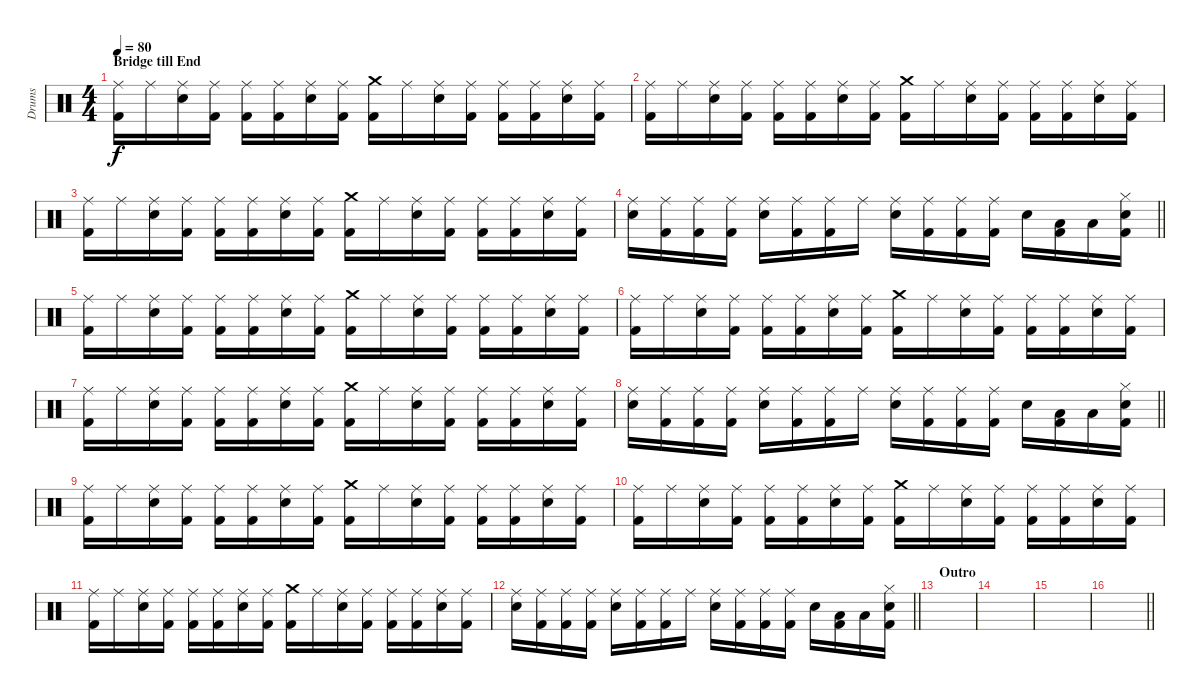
\track ("Drums" "Drums") {instrument percussion}
\staff {score}
\articulation defaults
\ts (4 4)
\section ("" "Bridge till End")
\tempo 80
\clef neutral
\ks c
("Ride (middle)" "Kick (hit) 2").16{dy f} "Ride (middle)".16 ("Ride (middle)" "Snare (hit) 2").16 ("Ride (middle)" "Kick (hit) 2").16 ("Ride (middle)" "Kick (hit) 2").16 ("Ride (middle)" "Kick (hit) 2").16 ("Ride (middle)" "Snare (hit) 2").16 ("Ride (middle)" "Kick (hit) 2").16 ("Crash medium (hit)" "Kick (hit) 2").16 "Ride (middle)".16 ("Ride (middle)" "Snare (hit) 2").16 ("Ride (middle)" "Kick (hit) 2").16 ("Ride (middle)" "Kick (hit) 2").16 ("Ride (middle)" "Kick (hit) 2").16 ("Ride (middle)" "Snare (hit) 2").16 ("Ride (middle)" "Kick (hit) 2").16 |
("Ride (middle)" "Kick (hit) 2").16 "Ride (middle)".16 ("Ride (middle)" "Snare (hit) 2").16 ("Ride (middle)" "Kick (hit) 2").16 ("Ride (middle)" "Kick (hit) 2").16 ("Ride (middle)" "Kick (hit) 2").16 ("Ride (middle)" "Snare (hit) 2").16 ("Ride (middle)" "Kick (hit) 2").16 ("Crash medium (hit)" "Kick (hit) 2").16 "Ride (middle)".16 ("Ride (middle)" "Snare (hit) 2").16 ("Ride (middle)" "Kick (hit) 2").16 ("Ride (middle)" "Kick (hit) 2").16 ("Ride (middle)" "Kick (hit) 2").16 ("Ride (middle)" "Snare (hit) 2").16 ("Ride (middle)" "Kick (hit) 2").16 |
("Ride (middle)" "Kick (hit) 2").16 "Ride (middle)".16 ("Ride (middle)" "Snare (hit) 2").16 ("Ride (middle)" "Kick (hit) 2").16 ("Ride (middle)" "Kick (hit) 2").16 ("Ride (middle)" "Kick (hit) 2").16 ("Ride (middle)" "Snare (hit) 2").16 ("Ride (middle)" "Kick (hit) 2").16 ("Crash medium (hit)" "Kick (hit) 2").16 "Ride (middle)".16 ("Ride (middle)" "Snare (hit) 2").16 ("Ride (middle)" "Kick (hit) 2").16 ("Ride (middle)" "Kick (hit) 2").16 ("Ride (middle)" "Kick (hit) 2").16 ("Ride (middle)" "Snare (hit) 2").16 ("Ride (middle)" "Kick (hit) 2").16 |
\barLineRight lightlight
("Ride (middle)" "Snare (hit) 2").16 ("Ride (middle)" "Kick (hit) 2").16 ("Ride (middle)" "Kick (hit) 2").16 ("Ride (middle)" "Kick (hit) 2").16 ("Ride (middle)" "Snare (hit) 2").16 ("Ride (middle)" "Kick (hit) 2").16 ("Ride (middle)" "Kick (hit) 2").16 "Ride (middle)".16 ("Ride (middle)" "Snare (hit) 2").16 ("Ride (middle)" "Kick (hit) 2").16 ("Ride (middle)" "Kick (hit) 2").16 ("Ride (middle)" "Kick (hit) 2").16 "Snare (hit) 2".16 ("Low Tom (hit)" "Kick (hit) 2").16 "Low Tom (hit)".16 ("Hi-Hat (closed)" "Snare (hit) 2" "Kick (hit) 2").16 |
("Ride (middle)" "Kick (hit) 2").16 "Ride (middle)".16 ("Ride (middle)" "Snare (hit) 2").16 ("Ride (middle)" "Kick (hit) 2").16 ("Ride (middle)" "Kick (hit) 2").16 ("Ride (middle)" "Kick (hit) 2").16 ("Ride (middle)" "Snare (hit) 2").16 ("Ride (middle)" "Kick (hit) 2").16 ("Crash medium (hit)" "Kick (hit) 2").16 "Ride (middle)".16 ("Ride (middle)" "Snare (hit) 2").16 ("Ride (middle)" "Kick (hit) 2").16 ("Ride (middle)" "Kick (hit) 2").16 ("Ride (middle)" "Kick (hit) 2").16 ("Ride (middle)" "Snare (hit) 2").16 ("Ride (middle)" "Kick (hit) 2").16 |
("Ride (middle)" "Kick (hit) 2").16 "Ride (middle)".16 ("Ride (middle)" "Snare (hit) 2").16 ("Ride (middle)" "Kick (hit) 2").16 ("Ride (middle)" "Kick (hit) 2").16 ("Ride (middle)" "Kick (hit) 2").16 ("Ride (middle)" "Snare (hit) 2").16 ("Ride (middle)" "Kick (hit) 2").16 ("Crash medium (hit)" "Kick (hit) 2").16 "Ride (middle)".16 ("Ride (middle)" "Snare (hit) 2").16 ("Ride (middle)" "Kick (hit) 2").16 ("Ride (middle)" "Kick (hit) 2").16 ("Ride (middle)" "Kick (hit) 2").16 ("Ride (middle)" "Snare (hit) 2").16 ("Ride (middle)" "Kick (hit) 2").16 |
("Ride (middle)" "Kick (hit) 2").16 "Ride (middle)".16 ("Ride (middle)" "Snare (hit) 2").16 ("Ride (middle)" "Kick (hit) 2").16 ("Ride (middle)" "Kick (hit) 2").16 ("Ride (middle)" "Kick (hit) 2").16 ("Ride (middle)" "Snare (hit) 2").16 ("Ride (middle)" "Kick (hit) 2").16 ("Crash medium (hit)" "Kick (hit) 2").16 "Ride (middle)".16 ("Ride (middle)" "Snare (hit) 2").16 ("Ride (middle)" "Kick (hit) 2").16 ("Ride (middle)" "Kick (hit) 2").16 ("Ride (middle)" "Kick (hit) 2").16 ("Ride (middle)" "Snare (hit) 2").16 ("Ride (middle)" "Kick (hit) 2").16 |
\barLineRight lightlight
("Ride (middle)" "Snare (hit) 2").16 ("Ride (middle)" "Kick (hit) 2").16 ("Ride (middle)" "Kick (hit) 2").16 ("Ride (middle)" "Kick (hit) 2").16 ("Ride (middle)" "Snare (hit) 2").16 ("Ride (middle)" "Kick (hit) 2").16 ("Ride (middle)" "Kick (hit) 2").16 "Ride (middle)".16 ("Ride (middle)" "Snare (hit) 2").16 ("Ride (middle)" "Kick (hit) 2").16 ("Ride (middle)" "Kick (hit) 2").16 ("Ride (middle)" "Kick (hit) 2").16 "Snare (hit) 2".16 ("Low Tom (hit)" "Kick (hit) 2").16 "Low Tom (hit)".16 ("Hi-Hat (closed)" "Snare (hit) 2" "Kick (hit) 2").16 |
("Ride (middle)" "Kick (hit) 2").16 "Ride (middle)".16 ("Ride (middle)" "Snare (hit) 2").16 ("Ride (middle)" "Kick (hit) 2").16 ("Ride (middle)" "Kick (hit) 2").16 ("Ride (middle)" "Kick (hit) 2").16 ("Ride (middle)" "Snare (hit) 2").16 ("Ride (middle)" "Kick (hit) 2").16 ("Crash medium (hit)" "Kick (hit) 2").16 "Ride (middle)".16 ("Ride (middle)" "Snare (hit) 2").16 ("Ride (middle)" "Kick (hit) 2").16 ("Ride (middle)" "Kick (hit) 2").16 ("Ride (middle)" "Kick (hit) 2").16 ("Ride (middle)" "Snare (hit) 2").16 ("Ride (middle)" "Kick (hit) 2").16 |
("Ride (middle)" "Kick (hit) 2").16 "Ride (middle)".16 ("Ride (middle)" "Snare (hit) 2").16 ("Ride (middle)" "Kick (hit) 2").16 ("Ride (middle)" "Kick (hit) 2").16 ("Ride (middle)" "Kick (hit) 2").16 ("Ride (middle)" "Snare (hit) 2").16 ("Ride (middle)" "Kick (hit) 2").16 ("Crash medium (hit)" "Kick (hit) 2").16 "Ride (middle)".16 ("Ride (middle)" "Snare (hit) 2").16 ("Ride (middle)" "Kick (hit) 2").16 ("Ride (middle)" "Kick (hit) 2").16 ("Ride (middle)" "Kick (hit) 2").16 ("Ride (middle)" "Snare (hit) 2").16 ("Ride (middle)" "Kick (hit) 2").16 |
("Ride (middle)" "Kick (hit) 2").16 "Ride (middle)".16 ("Ride (middle)" "Snare (hit) 2").16 ("Ride (middle)" "Kick (hit) 2").16 ("Ride (middle)" "Kick (hit) 2").16 ("Ride (middle)" "Kick (hit) 2").16 ("Ride (middle)" "Snare (hit) 2").16 ("Ride (middle)" "Kick (hit) 2").16 ("Crash medium (hit)" "Kick (hit) 2").16 "Ride (middle)".16 ("Ride (middle)" "Snare (hit) 2").16 ("Ride (middle)" "Kick (hit) 2").16 ("Ride (middle)" "Kick (hit) 2").16 ("Ride (middle)" "Kick (hit) 2").16 ("Ride (middle)" "Snare (hit) 2").16 ("Ride (middle)" "Kick (hit) 2").16 |
\barLineRight lightlight
("Ride (middle)" "Snare (hit) 2").16 ("Ride (middle)" "Kick (hit) 2").16 ("Ride (middle)" "Kick (hit) 2").16 ("Ride (middle)" "Kick (hit) 2").16 ("Ride (middle)" "Snare (hit) 2").16 ("Ride (middle)" "Kick (hit) 2").16 ("Ride (middle)" "Kick (hit) 2").16 "Ride (middle)".16 ("Ride (middle)" "Snare (hit) 2").16 ("Ride (middle)" "Kick (hit) 2").16 ("Ride (middle)" "Kick (hit) 2").16 ("Ride (middle)" "Kick (hit) 2").16 "Snare (hit) 2".16 ("Low Tom (hit)" "Kick (hit) 2").16 "Low Tom (hit)".16 ("Hi-Hat (closed)" "Snare (hit) 2" "Kick (hit) 2").16 |
\section ("" "Outro")
|
|
|
\barLineRight lightlight
